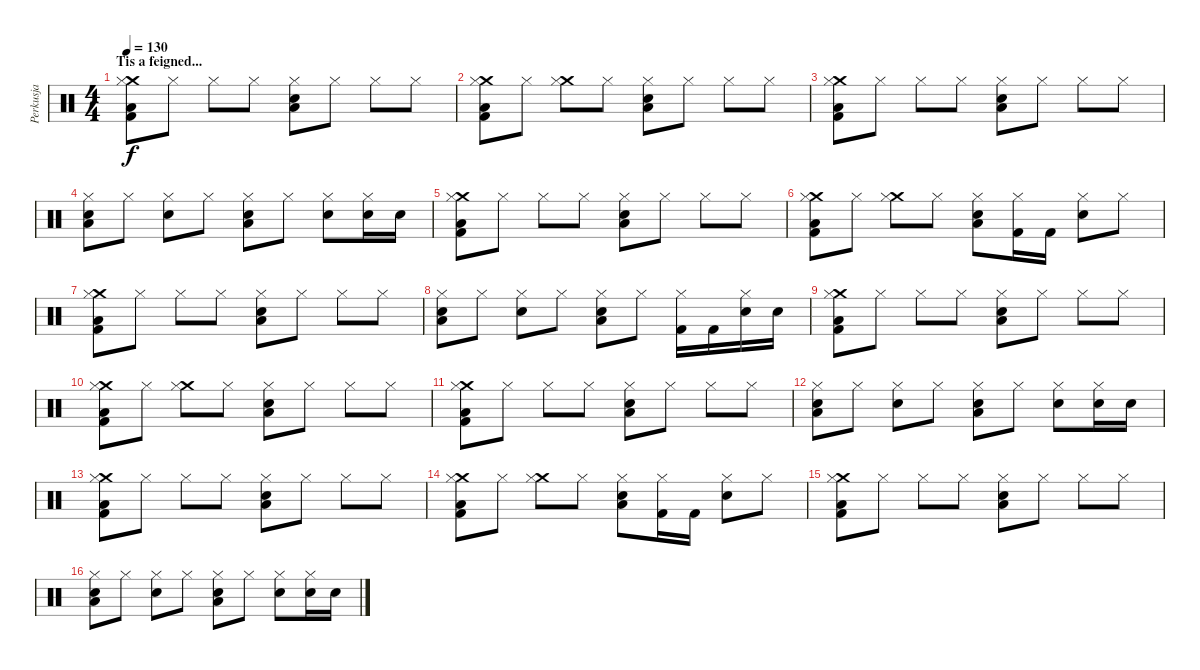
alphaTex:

\track ("Perkusja" "Perkusja") {instrument percussion}
\staff {score}
\articulation defaults
\ts (4 4)
\section ("" "Tis a feigned...")
\tempo 130
\clef neutral
\ks c
("Crash medium (hit)" "Kick (hit) 2" "Hi-Hat (closed)" "Low Tom (hit)").8{dy f} "Hi-Hat (closed)".8 "Hi-Hat (closed)".8 "Hi-Hat (closed)".8 ("Snare (hit) 2" "Hi-Hat (closed)" "Low Tom (hit)").8 "Hi-Hat (closed)".8 "Hi-Hat (closed)".8 "Hi-Hat (closed)".8 |
("Crash medium (hit)" "Kick (hit) 2" "Hi-Hat (closed)" "Low Tom (hit)").8 "Hi-Hat (closed)".8 ("Crash medium (hit)" "Hi-Hat (closed)").8 "Hi-Hat (closed)".8 ("Snare (hit) 2" "Hi-Hat (closed)" "Low Tom (hit)").8 "Hi-Hat (closed)".8 "Hi-Hat (closed)".8 "Hi-Hat (closed)".8 |
("Crash medium (hit)" "Kick (hit) 2" "Hi-Hat (closed)" "Low Tom (hit)").8 "Hi-Hat (closed)".8 "Hi-Hat (closed)".8 "Hi-Hat (closed)".8 ("Snare (hit) 2" "Hi-Hat (closed)" "Low Tom (hit)").8 "Hi-Hat (closed)".8 "Hi-Hat (closed)".8 "Hi-Hat (closed)".8 |
("Snare (hit) 2" "Hi-Hat (closed)" "Low Tom (hit)").8 "Hi-Hat (closed)".8 ("Snare (hit) 2" "Hi-Hat (closed)").8 "Hi-Hat (closed)".8 ("Snare (hit) 2" "Hi-Hat (closed)" "Low Tom (hit)").8 "Hi-Hat (closed)".8 ("Snare (hit) 2" "Hi-Hat (closed)").8 ("Snare (hit) 2" "Hi-Hat (closed)").16 "Snare (hit) 2".16 |
("Crash medium (hit)" "Kick (hit) 2" "Hi-Hat (closed)" "Low Tom (hit)").8 "Hi-Hat (closed)".8 "Hi-Hat (closed)".8 "Hi-Hat (closed)".8 ("Snare (hit) 2" "Hi-Hat (closed)" "Low Tom (hit)").8 "Hi-Hat (closed)".8 "Hi-Hat (closed)".8 "Hi-Hat (closed)".8 |
("Crash medium (hit)" "Kick (hit) 2" "Hi-Hat (closed)" "Low Tom (hit)").8 "Hi-Hat (closed)".8 ("Crash medium (hit)" "Hi-Hat (closed)").8 "Hi-Hat (closed)".8 ("Snare (hit) 2" "Hi-Hat (closed)" "Low Tom (hit)").8 ("Kick (hit) 2" "Hi-Hat (closed)").16 "Kick (hit) 2".16 ("Snare (hit) 2" "Hi-Hat (closed)").8 "Hi-Hat (closed)".8 |
("Crash medium (hit)" "Kick (hit) 2" "Hi-Hat (closed)" "Low Tom (hit)").8 "Hi-Hat (closed)".8 "Hi-Hat (closed)".8 "Hi-Hat (closed)".8 ("Snare (hit) 2" "Hi-Hat (closed)" "Low Tom (hit)").8 "Hi-Hat (closed)".8 "Hi-Hat (closed)".8 "Hi-Hat (closed)".8 |
("Snare (hit) 2" "Hi-Hat (closed)" "Low Tom (hit)").8 "Hi-Hat (closed)".8 ("Snare (hit) 2" "Hi-Hat (closed)").8 "Hi-Hat (closed)".8 ("Snare (hit) 2" "Hi-Hat (closed)" "Low Tom (hit)").8 "Hi-Hat (closed)".8 ("Kick (hit) 2" "Hi-Hat (closed)").16 "Kick (hit) 2".16 ("Snare (hit) 2" "Hi-Hat (closed)").16 "Snare (hit) 2".16 |
("Crash medium (hit)" "Kick (hit) 2" "Hi-Hat (closed)" "Low Tom (hit)").8 "Hi-Hat (closed)".8 "Hi-Hat (closed)".8 "Hi-Hat (closed)".8 ("Snare (hit) 2" "Hi-Hat (closed)" "Low Tom (hit)").8 "Hi-Hat (closed)".8 "Hi-Hat (closed)".8 "Hi-Hat (closed)".8 |
("Crash medium (hit)" "Kick (hit) 2" "Hi-Hat (closed)" "Low Tom (hit)").8 "Hi-Hat (closed)".8 ("Crash medium (hit)" "Hi-Hat (closed)").8 "Hi-Hat (closed)".8 ("Snare (hit) 2" "Hi-Hat (closed)" "Low Tom (hit)").8 "Hi-Hat (closed)".8 "Hi-Hat (closed)".8 "Hi-Hat (closed)".8 |
("Crash medium (hit)" "Kick (hit) 2" "Hi-Hat (closed)" "Low Tom (hit)").8 "Hi-Hat (closed)".8 "Hi-Hat (closed)".8 "Hi-Hat (closed)".8 ("Snare (hit) 2" "Hi-Hat (closed)" "Low Tom (hit)").8 "Hi-Hat (closed)".8 "Hi-Hat (closed)".8 "Hi-Hat (closed)".8 |
("Snare (hit) 2" "Hi-Hat (closed)" "Low Tom (hit)").8 "Hi-Hat (closed)".8 ("Snare (hit) 2" "Hi-Hat (closed)").8 "Hi-Hat (closed)".8 ("Snare (hit) 2" "Hi-Hat (closed)" "Low Tom (hit)").8 "Hi-Hat (closed)".8 ("Snare (hit) 2" "Hi-Hat (closed)").8 ("Snare (hit) 2" "Hi-Hat (closed)").16 "Snare (hit) 2".16 |
("Crash medium (hit)" "Kick (hit) 2" "Hi-Hat (closed)" "Low Tom (hit)").8 "Hi-Hat (closed)".8 "Hi-Hat (closed)".8 "Hi-Hat (closed)".8 ("Snare (hit) 2" "Hi-Hat (closed)" "Low Tom (hit)").8 "Hi-Hat (closed)".8 "Hi-Hat (closed)".8 "Hi-Hat (closed)".8 |
("Crash medium (hit)" "Kick (hit) 2" "Hi-Hat (closed)" "Low Tom (hit)").8 "Hi-Hat (closed)".8 ("Crash medium (hit)" "Hi-Hat (closed)").8 "Hi-Hat (closed)".8 ("Snare (hit) 2" "Hi-Hat (closed)" "Low Tom (hit)").8 ("Kick (hit) 2" "Hi-Hat (closed)").16 "Kick (hit) 2".16 ("Snare (hit) 2" "Hi-Hat (closed)").8 "Hi-Hat (closed)".8 |
("Crash medium (hit)" "Kick (hit) 2" "Hi-Hat (closed)" "Low Tom (hit)").8 "Hi-Hat (closed)".8 "Hi-Hat (closed)".8 "Hi-Hat (closed)".8 ("Snare (hit) 2" "Hi-Hat (closed)" "Low Tom (hit)").8 "Hi-Hat (closed)".8 "Hi-Hat (closed)".8 "Hi-Hat (closed)".8 |
("Snare (hit) 2" "Hi-Hat (closed)" "Low Tom (hit)").8 "Hi-Hat (closed)".8 ("Snare (hit) 2" "Hi-Hat (closed)").8 "Hi-Hat (closed)".8 ("Snare (hit) 2" "Hi-Hat (closed)" "Low Tom (hit)").8 "Hi-Hat (closed)".8 ("Snare (hit) 2" "Hi-Hat (closed)").8 ("Snare (hit) 2" "Hi-Hat (closed)").16 "Snare (hit) 2".16
